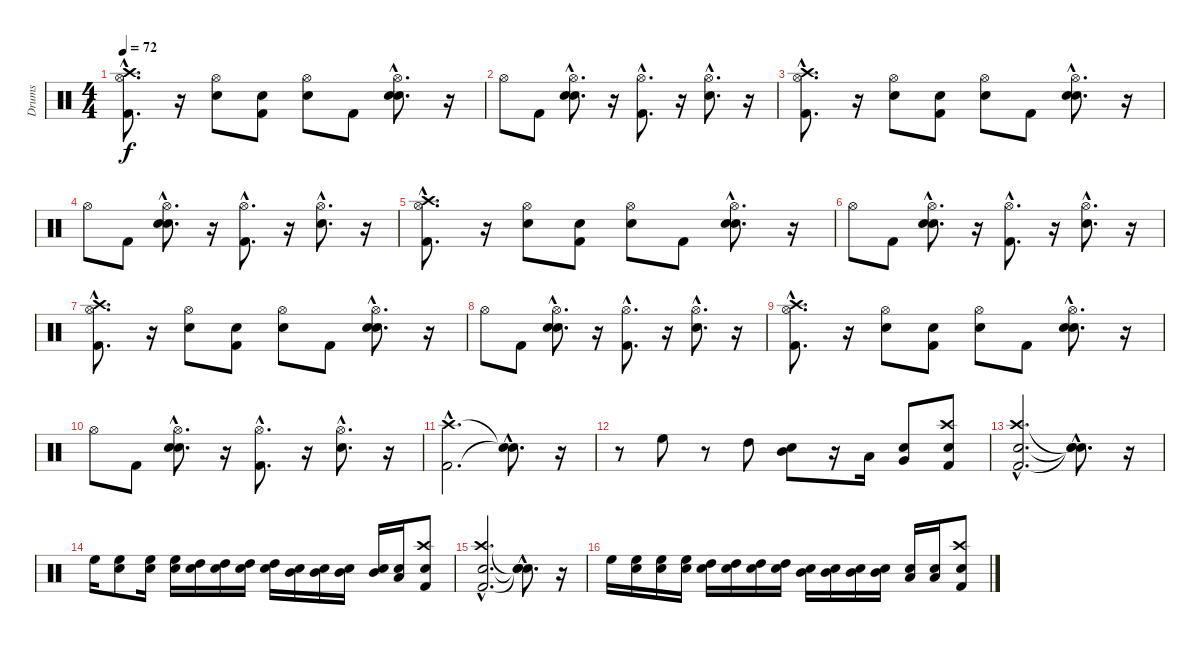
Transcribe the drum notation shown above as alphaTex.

\track ("Drums" "Drums") {instrument percussion}
\staff {score}
\articulation defaults
\ts (4 4)
\tempo 72
\clef neutral
\ks c
("Kick (hit) 2"{hac} "Hi-Hat (open)"{hac} "Crash high (hit)"{hac}).8{d dy f} r.16 ("Snare (hit) 2" "Hi-Hat (open)").8 ("Snare (hit)" "Kick (hit) 2").8 ("Snare (hit)" "Hi-Hat (open)").8 "Kick (hit) 2".8 ("Snare (hit)"{hac} "Snare (hit) 2"{hac} "Hi-Hat (open)"{hac}).8{d} r.16 |
"Hi-Hat (open)".8 "Kick (hit) 2".8 ("Snare (hit)"{hac} "Snare (hit) 2"{hac} "Hi-Hat (open)"{hac}).8{d} r.16 ("Kick (hit) 2"{hac} "Hi-Hat (open)"{hac}).8{d} r.16 ("Snare (hit) 2"{hac} "Hi-Hat (open)"{hac}).8{d} r.16 |
("Kick (hit) 2"{hac} "Hi-Hat (open)"{hac} "Crash high (hit)"{hac}).8{d} r.16 ("Snare (hit) 2" "Hi-Hat (open)").8 ("Snare (hit)" "Kick (hit) 2").8 ("Snare (hit)" "Hi-Hat (open)").8 "Kick (hit) 2".8 ("Snare (hit)"{hac} "Snare (hit) 2"{hac} "Hi-Hat (open)"{hac}).8{d} r.16 |
"Hi-Hat (open)".8 "Kick (hit) 2".8 ("Snare (hit)"{hac} "Snare (hit) 2"{hac} "Hi-Hat (open)"{hac}).8{d} r.16 ("Kick (hit) 2"{hac} "Hi-Hat (open)"{hac}).8{d} r.16 ("Snare (hit) 2"{hac} "Hi-Hat (open)"{hac}).8{d} r.16 |
("Kick (hit) 2"{hac} "Hi-Hat (open)"{hac} "Crash high (hit)"{hac}).8{d} r.16 ("Snare (hit) 2" "Hi-Hat (open)").8 ("Snare (hit)" "Kick (hit) 2").8 ("Snare (hit)" "Hi-Hat (open)").8 "Kick (hit) 2".8 ("Snare (hit)"{hac} "Snare (hit) 2"{hac} "Hi-Hat (open)"{hac}).8{d} r.16 |
"Hi-Hat (open)".8 "Kick (hit) 2".8 ("Snare (hit)"{hac} "Snare (hit) 2"{hac} "Hi-Hat (open)"{hac}).8{d} r.16 ("Kick (hit) 2"{hac} "Hi-Hat (open)"{hac}).8{d} r.16 ("Snare (hit) 2"{hac} "Hi-Hat (open)"{hac}).8{d} r.16 |
("Kick (hit) 2"{hac} "Hi-Hat (open)"{hac} "Crash high (hit)"{hac}).8{d} r.16 ("Snare (hit) 2" "Hi-Hat (open)").8 ("Snare (hit)" "Kick (hit) 2").8 ("Snare (hit)" "Hi-Hat (open)").8 "Kick (hit) 2".8 ("Snare (hit)"{hac} "Snare (hit) 2"{hac} "Hi-Hat (open)"{hac}).8{d} r.16 |
"Hi-Hat (open)".8 "Kick (hit) 2".8 ("Snare (hit)"{hac} "Snare (hit) 2"{hac} "Hi-Hat (open)"{hac}).8{d} r.16 ("Kick (hit) 2"{hac} "Hi-Hat (open)"{hac}).8{d} r.16 ("Snare (hit) 2"{hac} "Hi-Hat (open)"{hac}).8{d} r.16 |
("Kick (hit) 2"{hac} "Hi-Hat (open)"{hac} "Crash high (hit)"{hac}).8{d} r.16 ("Snare (hit) 2" "Hi-Hat (open)").8 ("Snare (hit)" "Kick (hit) 2").8 ("Snare (hit)" "Hi-Hat (open)").8 "Kick (hit) 2".8 ("Snare (hit)"{hac} "Snare (hit) 2"{hac} "Hi-Hat (open)"{hac}).8{d} r.16 |
"Hi-Hat (open)".8 "Kick (hit) 2".8 ("Snare (hit)"{hac} "Snare (hit) 2"{hac} "Hi-Hat (open)"{hac}).8{d} r.16 ("Kick (hit) 2"{hac} "Hi-Hat (open)"{hac}).8{d} r.16 ("Snare (hit) 2"{hac} "Hi-Hat (open)"{hac}).8{d} r.16 |
("Kick (hit) 2"{hac} "Crash high (hit)"{hac}).2{d} ("Snare (hit)"{hac t} "Snare (hit)"{hac t}).8{d} r.16 |
r.8 "High Floor Tom (hit)".8 r.8 "High Tom (hit)".8 ("Snare (hit)" "Mid Tom (hit)").8 r.16 "Low Tom (hit)".16 ("Snare (hit)" "Very Low Tom (hit)").8 ("Snare (hit)" "Kick (hit) 2" "Crash high (hit)").8 |
("Snare (hit)"{hac} "Kick (hit) 2"{hac} "Crash high (hit)"{hac}).2{d} ("Snare (hit)"{hac t} "Snare (hit)"{hac t} "Snare (hit)"{hac t}).8{d} r.16 |
"High Floor Tom (hit)".16 ("Snare (hit)" "High Floor Tom (hit)").8 ("Snare (hit)" "High Floor Tom (hit)").16 ("Snare (hit)" "High Floor Tom (hit)").16 ("Snare (hit)" "High Tom (hit)").16 ("Snare (hit)" "High Tom (hit)").16 ("Snare (hit)" "High Tom (hit)").16 ("Snare (hit)" "High Tom (hit)").16 ("Snare (hit)" "Mid Tom (hit)").16 ("Snare (hit)" "Mid Tom (hit)").16 ("Snare (hit)" "Mid Tom (hit)").16 ("Snare (hit)" "Mid Tom (hit)").16 ("Snare (hit)" "Low Tom (hit)").16 ("Snare (hit)" "Kick (hit) 2" "Crash high (hit)").8 |
("Snare (hit)"{hac} "Kick (hit) 2"{hac} "Crash high (hit)"{hac}).2{d} ("Snare (hit)"{hac t} "Snare (hit)"{hac t} "Snare (hit)"{hac t}).8{d} r.16 |
"High Floor Tom (hit)".16 ("Snare (hit)" "High Floor Tom (hit)").16 ("Snare (hit)" "High Floor Tom (hit)").16 ("Snare (hit)" "High Floor Tom (hit)").16 ("Snare (hit)" "High Tom (hit)").16 ("Snare (hit)" "High Tom (hit)").16 ("Snare (hit)" "High Tom (hit)").16 ("Snare (hit)" "High Tom (hit)").16 ("Snare (hit)" "Mid Tom (hit)").16 ("Snare (hit)" "Mid Tom (hit)").16 ("Snare (hit)" "Mid Tom (hit)").16 ("Snare (hit)" "Mid Tom (hit)").16 ("Snare (hit)" "Low Tom (hit)").16 ("Snare (hit)" "Low Tom (hit)").16 ("Snare (hit)" "Kick (hit) 2" "Crash high (hit)").8
